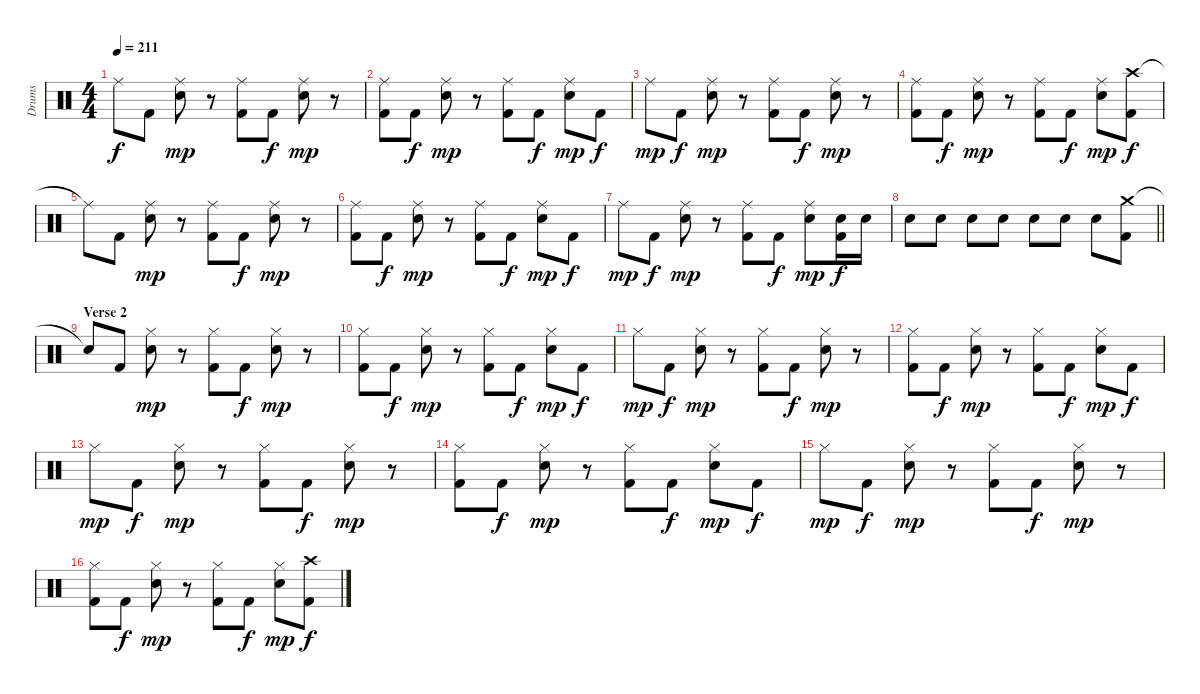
\track ("Drums" "Drums") {instrument percussion}
\staff {score}
\articulation defaults
\ts (4 4)
\tempo 211
\clef neutral
\ks c "Ride (middle)"{t}.8{dy f} "Kick (hit) 2".8
("Ride (middle)" "Snare (hit) 2").8{dy mp} r.8 ("Ride (middle)" "Kick (hit) 2").8 "Kick (hit) 2".8{dy f} ("Ride (middle)" "Snare (hit) 2").8{dy mp} r.8 |
("Ride (middle)" "Kick (hit) 2").8 "Kick (hit) 2".8{dy f} ("Ride (middle)" "Snare (hit) 2").8{dy mp} r.8 ("Ride (middle)" "Kick (hit) 2").8 "Kick (hit) 2".8{dy f} ("Ride (middle)" "Snare (hit) 2").8{dy mp} "Kick (hit) 2".8{dy f} |
"Ride (middle)".8{dy mp} "Kick (hit) 2".8{dy f} ("Ride (middle)" "Snare (hit) 2").8{dy mp} r.8 ("Ride (middle)" "Kick (hit) 2").8 "Kick (hit) 2".8{dy f} ("Ride (middle)" "Snare (hit) 2").8{dy mp} r.8 |
("Ride (middle)" "Kick (hit) 2").8 "Kick (hit) 2".8{dy f} ("Ride (middle)" "Snare (hit) 2").8{dy mp} r.8 ("Ride (middle)" "Kick (hit) 2").8 "Kick (hit) 2".8{dy f} ("Ride (middle)" "Snare (hit) 2").8{dy mp} ("Crash high (hit)" "Kick (hit) 2").8{dy f} |
"Ride (middle)"{t}.8 "Kick (hit) 2".8 ("Ride (middle)" "Snare (hit) 2").8{dy mp} r.8 ("Ride (middle)" "Kick (hit) 2").8 "Kick (hit) 2".8{dy f} ("Ride (middle)" "Snare (hit) 2").8{dy mp} r.8 |
("Ride (middle)" "Kick (hit) 2").8 "Kick (hit) 2".8{dy f} ("Ride (middle)" "Snare (hit) 2").8{dy mp} r.8 ("Ride (middle)" "Kick (hit) 2").8 "Kick (hit) 2".8{dy f} ("Ride (middle)" "Snare (hit) 2").8{dy mp} "Kick (hit) 2".8{dy f} |
"Ride (middle)".8{dy mp} "Kick (hit) 2".8{dy f} ("Ride (middle)" "Snare (hit) 2").8{dy mp} r.8 ("Ride (middle)" "Kick (hit) 2").8 "Kick (hit) 2".8{dy f} ("Ride (middle)" "Snare (hit) 2").8{dy mp} ("Snare (hit) 2" "Kick (hit) 2").16{dy f} "Snare (hit) 2".16 |
\barLineRight lightlight "Snare (hit) 2".8 "Snare (hit) 2".8 "Snare (hit) 2".8 "Snare (hit) 2".8 "Snare (hit) 2".8 "Snare (hit) 2".8 "Snare (hit) 2".8
("Crash medium (hit)" "Kick (hit) 2").8 |
\section ("" "Verse 2")
"Snare (hit)"{t}.8 "Kick (hit) 2".8 ("Hi-Hat (closed)" "Snare (hit) 2").8{dy mp} r.8 ("Hi-Hat (closed)" "Kick (hit) 2").8 "Kick (hit) 2".8{dy f} ("Hi-Hat (closed)" "Snare (hit) 2").8{dy mp} r.8 |
("Hi-Hat (closed)" "Kick (hit) 2").8 "Kick (hit) 2".8{dy f} ("Hi-Hat (closed)" "Snare (hit) 2").8{dy mp} r.8 ("Hi-Hat (closed)" "Kick (hit) 2").8 "Kick (hit) 2".8{dy f} ("Hi-Hat (closed)" "Snare (hit) 2").8{dy mp} "Kick (hit) 2".8{dy f} |
"Hi-Hat (closed)".8{dy mp} "Kick (hit) 2".8{dy f} ("Hi-Hat (closed)" "Snare (hit) 2").8{dy mp} r.8 ("Hi-Hat (closed)" "Kick (hit) 2").8 "Kick (hit) 2".8{dy f} ("Hi-Hat (closed)" "Snare (hit) 2").8{dy mp} r.8 |
("Hi-Hat (closed)" "Kick (hit) 2").8 "Kick (hit) 2".8{dy f} ("Hi-Hat (closed)" "Snare (hit) 2").8{dy mp} r.8 ("Hi-Hat (closed)" "Kick (hit) 2").8 "Kick (hit) 2".8{dy f} ("Hi-Hat (closed)" "Snare (hit) 2").8{dy mp} "Kick (hit) 2".8{dy f} |
"Hi-Hat (closed)".8{dy mp} "Kick (hit) 2".8{dy f} ("Hi-Hat (closed)" "Snare (hit) 2").8{dy mp} r.8 ("Hi-Hat (closed)" "Kick (hit) 2").8 "Kick (hit) 2".8{dy f} ("Hi-Hat (closed)" "Snare (hit) 2").8{dy mp} r.8 |
("Hi-Hat (closed)" "Kick (hit) 2").8 "Kick (hit) 2".8{dy f} ("Hi-Hat (closed)" "Snare (hit) 2").8{dy mp} r.8 ("Hi-Hat (closed)" "Kick (hit) 2").8 "Kick (hit) 2".8{dy f} ("Hi-Hat (closed)" "Snare (hit) 2").8{dy mp} "Kick (hit) 2".8{dy f} |
"Hi-Hat (closed)".8{dy mp} "Kick (hit) 2".8{dy f} ("Hi-Hat (closed)" "Snare (hit) 2").8{dy mp} r.8 ("Hi-Hat (closed)" "Kick (hit) 2").8 "Kick (hit) 2".8{dy f} ("Hi-Hat (closed)" "Snare (hit) 2").8{dy mp} r.8 |
("Hi-Hat (closed)" "Kick (hit) 2").8 "Kick (hit) 2".8{dy f} ("Hi-Hat (closed)" "Snare (hit) 2").8{dy mp} r.8 ("Hi-Hat (closed)" "Kick (hit) 2").8 "Kick (hit) 2".8{dy f} ("Hi-Hat (closed)" "Snare (hit) 2").8{dy mp} ("Crash high (hit)" "Kick (hit) 2").8{dy f}
